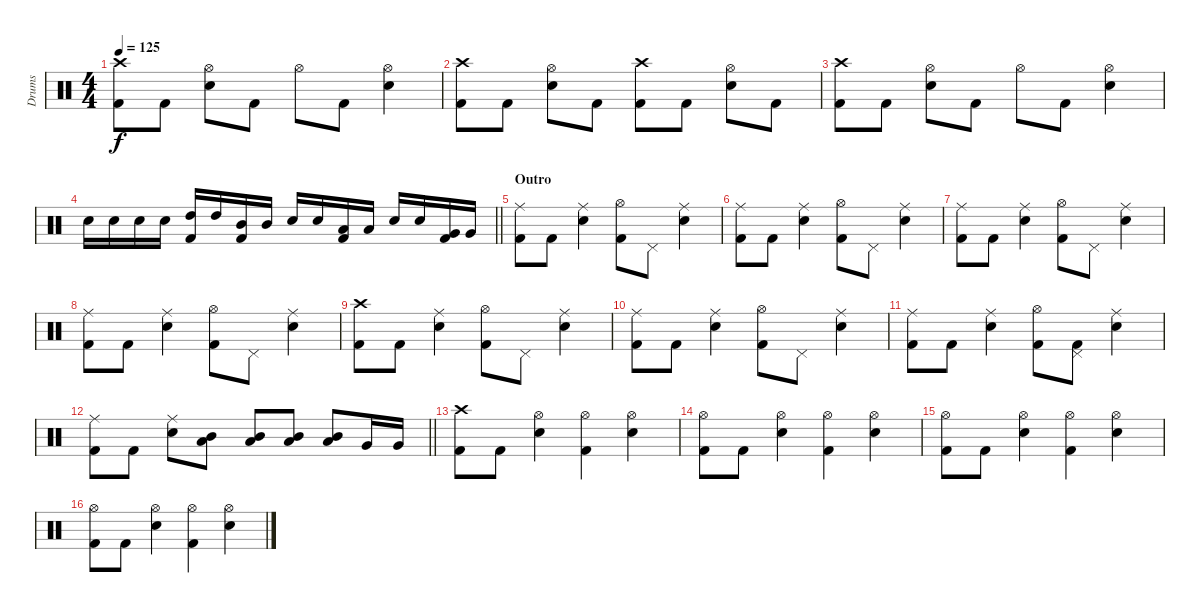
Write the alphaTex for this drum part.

\track ("Drums" "Drums") {instrument percussion}
\staff {score}
\articulation defaults
\ts (4 4)
\tempo 125
\clef neutral
\ks c
("Crash high (hit)" "Kick (hit) 2").8{dy f} "Kick (hit) 2".8 ("Hi-Hat (open)" "Electric Snare (hit)").8 "Kick (hit) 2".8 "Hi-Hat (open)".8 "Kick (hit) 2".8 ("Hi-Hat (open)" "Electric Snare (hit)").4 |
("Crash high (hit)" "Kick (hit) 2").8 "Kick (hit) 2".8 ("Hi-Hat (open)" "Electric Snare (hit)").8 "Kick (hit) 2".8 ("Crash high (hit)" "Kick (hit) 2").8 "Kick (hit) 2".8 ("Hi-Hat (open)" "Electric Snare (hit)").8 "Kick (hit) 2".8 |
("Crash high (hit)" "Kick (hit) 2").8 "Kick (hit) 2".8 ("Hi-Hat (open)" "Electric Snare (hit)").8 "Kick (hit) 2".8 "Hi-Hat (open)".8 "Kick (hit) 2".8 ("Hi-Hat (open)" "Electric Snare (hit)").4 |
\barLineRight lightlight "Electric Snare (hit)".16 "Electric Snare (hit)".16 "Electric Snare (hit)".16 "Electric Snare (hit)".16
("High Tom (hit)" "Kick (hit) 2").16 "High Tom (hit)".16 ("Mid Tom (hit)" "Kick (hit) 2").16 "Mid Tom (hit)".16 "Electric Snare (hit)".16 "Electric Snare (hit)".16 ("Low Tom (hit)" "Kick (hit) 2").16 "Low Tom (hit)".16 "Electric Snare (hit)".16 "Electric Snare (hit)".16 ("Very Low Tom (hit)" "Kick (hit) 2").16 "Very Low Tom (hit)".16 |
\section ("" "Outro")
("Ride (middle)" "Kick (hit) 2").8 "Kick (hit) 2".8 ("Ride (middle)" "Electric Snare (hit)").4 ("Hi-Hat (open)" "Kick (hit) 2").8 "Pedal Hi-Hat (hit)".8 ("Ride (middle)" "Electric Snare (hit)").4 |
("Ride (middle)" "Kick (hit) 2").8 "Kick (hit) 2".8 ("Ride (middle)" "Electric Snare (hit)").4 ("Hi-Hat (open)" "Kick (hit) 2").8 "Pedal Hi-Hat (hit)".8 ("Ride (middle)" "Electric Snare (hit)").4 |
("Ride (middle)" "Kick (hit) 2").8 "Kick (hit) 2".8 ("Ride (middle)" "Electric Snare (hit)").4 ("Hi-Hat (open)" "Kick (hit) 2").8 "Pedal Hi-Hat (hit)".8 ("Ride (middle)" "Electric Snare (hit)").4 |
("Ride (middle)" "Kick (hit) 2").8 "Kick (hit) 2".8 ("Ride (middle)" "Electric Snare (hit)").4 ("Hi-Hat (open)" "Kick (hit) 2").8 "Pedal Hi-Hat (hit)".8 ("Ride (middle)" "Electric Snare (hit)").4 |
("Crash high (hit)" "Kick (hit) 2").8 "Kick (hit) 2".8 ("Ride (middle)" "Electric Snare (hit)").4 ("Hi-Hat (open)" "Kick (hit) 2").8 "Pedal Hi-Hat (hit)".8 ("Ride (middle)" "Electric Snare (hit)").4 |
("Ride (middle)" "Kick (hit) 2").8 "Kick (hit) 2".8 ("Ride (middle)" "Electric Snare (hit)").4 ("Hi-Hat (open)" "Kick (hit) 2").8 "Pedal Hi-Hat (hit)".8 ("Ride (middle)" "Electric Snare (hit)").4 |
("Ride (middle)" "Kick (hit) 2").8 "Kick (hit) 2".8 ("Ride (middle)" "Electric Snare (hit)").4 ("Hi-Hat (open)" "Kick (hit) 2").8 ("Pedal Hi-Hat (hit)" "Kick (hit) 2").8 ("Ride (middle)" "Electric Snare (hit)").4 |
\barLineRight lightlight
("Ride (middle)" "Kick (hit) 2").8 "Kick (hit) 2".8 ("Ride (middle)" "Electric Snare (hit)").8 ("Mid Tom (hit)" "Low Tom (hit)").8 ("Mid Tom (hit)" "Low Tom (hit)").8 ("Mid Tom (hit)" "Low Tom (hit)").8 ("Mid Tom (hit)" "Low Tom (hit)").8 "Very Low Tom (hit)".16 "Very Low Tom (hit)".16 |
("Crash high (hit)" "Kick (hit) 2").8 "Kick (hit) 2".8 ("Hi-Hat (open)" "Electric Snare (hit)").4 ("Hi-Hat (open)" "Kick (hit) 2").4 ("Hi-Hat (open)" "Electric Snare (hit)").4 |
("Hi-Hat (open)" "Kick (hit) 2").8 "Kick (hit) 2".8 ("Hi-Hat (open)" "Electric Snare (hit)").4 ("Hi-Hat (open)" "Kick (hit) 2").4 ("Hi-Hat (open)" "Electric Snare (hit)").4 |
("Hi-Hat (open)" "Kick (hit) 2").8 "Kick (hit) 2".8 ("Hi-Hat (open)" "Electric Snare (hit)").4 ("Hi-Hat (open)" "Kick (hit) 2").4 ("Hi-Hat (open)" "Electric Snare (hit)").4 |
("Hi-Hat (open)" "Kick (hit) 2").8 "Kick (hit) 2".8 ("Hi-Hat (open)" "Electric Snare (hit)").4 ("Hi-Hat (open)" "Kick (hit) 2").4 ("Hi-Hat (open)" "Electric Snare (hit)").4
